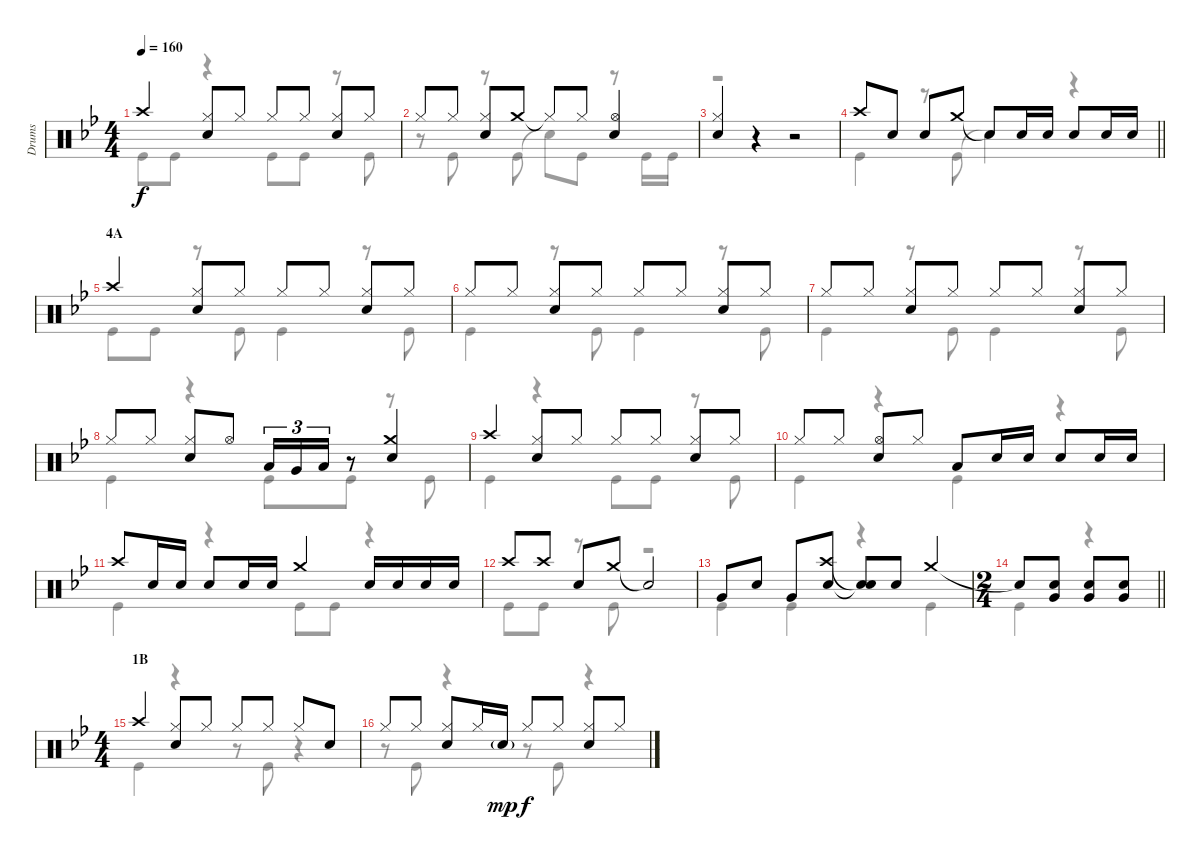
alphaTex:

\track ("Drums" "Drums") {instrument percussion}
\staff {score}
\articulation defaults
\voice
\ts (4 4)
\tempo 160
\clef neutral
\ks bb "Crash high (hit)".4{dy f}
("Hi-Hat (closed)" "Snare (hit) 2").8 "Hi-Hat (closed)".8 "Hi-Hat (closed)".8 "Hi-Hat (closed)".8 ("Hi-Hat (closed)" "Snare (hit) 2").8 "Hi-Hat (closed)".8 |
"Hi-Hat (closed)".8 "Hi-Hat (closed)".8 ("Hi-Hat (closed)" "Snare (hit) 2").8 "Crash medium (hit)".8 "Hi-Hat (closed)"{t}.8 "Hi-Hat (closed)".8 ("Hi-Hat (open)" "Snare (hit) 2").4 |
("Hi-Hat (closed)" "Snare (hit) 2").4 r.4 r.2 |
\barLineRight lightlight "Crash high (hit)".8 "Snare (hit) 2".8 "Snare (hit) 2".8 "Crash medium (hit)".8 "Snare (hit)"{t}.8 "Snare (hit) 2".16 "Snare (hit) 2".16 "Snare (hit) 2".8 "Snare (hit) 2".16 "Snare (hit) 2".16
|
\section ("" "4A")
"Crash high (hit)".4 ("Hi-Hat (closed)" "Snare (hit) 2").8 "Hi-Hat (closed)".8 "Hi-Hat (closed)".8 "Hi-Hat (closed)".8 ("Hi-Hat (closed)" "Snare (hit) 2").8 "Hi-Hat (closed)".8 |
"Hi-Hat (closed)".8 "Hi-Hat (closed)".8 ("Hi-Hat (closed)" "Snare (hit) 2").8 "Hi-Hat (closed)".8 "Hi-Hat (closed)".8 "Hi-Hat (closed)".8 ("Hi-Hat (closed)" "Snare (hit) 2").8 "Hi-Hat (closed)".8 |
"Hi-Hat (closed)".8 "Hi-Hat (closed)".8 ("Hi-Hat (closed)" "Snare (hit) 2").8 "Hi-Hat (closed)".8 "Hi-Hat (closed)".8 "Hi-Hat (closed)".8 ("Hi-Hat (closed)" "Snare (hit) 2").8 "Hi-Hat (closed)".8 |
"Hi-Hat (closed)".8 "Hi-Hat (closed)".8 ("Hi-Hat (closed)" "Snare (hit) 2").8 "Hi-Hat (open)".8 "Low Tom (hit)".16{tu (3 2)} "Very Low Tom (hit)".16{tu (3 2)} "Low Tom (hit)".16{tu (3 2)} r.8 ("Crash medium (hit)" "Snare (hit) 2").4 |
"Crash high (hit)".4 ("Hi-Hat (closed)" "Snare (hit) 2").8 "Hi-Hat (closed)".8 "Hi-Hat (closed)".8 "Hi-Hat (closed)".8 ("Hi-Hat (closed)" "Snare (hit) 2").8 "Hi-Hat (closed)".8 |
"Hi-Hat (closed)".8 "Hi-Hat (closed)".8 ("Hi-Hat (open)" "Snare (hit) 2").8 "Hi-Hat (closed)".8 "Low Tom (hit)".8 "Snare (hit) 2".16 "Snare (hit) 2".16 "Snare (hit) 2".8 "Snare (hit) 2".16 "Snare (hit) 2".16 |
"Crash high (hit)".8 "Snare (hit) 2".16 "Snare (hit) 2".16 "Snare (hit) 2".8 "Snare (hit) 2".16 "Snare (hit) 2".16 "Crash medium (hit)".4 "Snare (hit) 2".16 "Snare (hit) 2".16 "Snare (hit) 2".16 "Snare (hit) 2".16 |
"Crash high (hit)".8 "Crash high (hit)".8 "Snare (hit) 2".8 "Crash medium (hit)".8 "Snare (hit)"{t}.2 |
"Very Low Tom (hit)".8 "Snare (hit) 2".8 "Very Low Tom (hit)".8 ("Crash high (hit)" "Snare (hit) 2").8 ("Snare (hit)"{t} "Snare (hit)"{t}).8 "Snare (hit) 2".8 "Crash medium (hit)".4 |
\ts (2 4)
\barLineRight lightlight "Snare (hit)"{t}.8
("Snare (hit) 2" "Very Low Tom (hit)").8 ("Snare (hit) 2" "Very Low Tom (hit)").8 ("Snare (hit) 2" "Very Low Tom (hit)").8 |
\ts (4 4)
\section ("" "1B")
"Crash high (hit)".4 ("Hi-Hat (closed)" "Snare (hit) 2").8 "Hi-Hat (closed)".8 "Hi-Hat (closed)".8 "Hi-Hat (closed)".8 "Hi-Hat (closed)".8 "Snare (hit) 2".8 |
"Hi-Hat (closed)".8 "Hi-Hat (closed)".8 ("Hi-Hat (closed)" "Snare (hit) 2").8 "Hi-Hat (closed)".16 "Snare (hit) 2"{g}.16{dy mp} "Hi-Hat (closed)".8{dy f} "Hi-Hat (closed)".8 ("Hi-Hat (closed)" "Snare (hit) 2").8 "Hi-Hat (closed)".8
\voice
\clef neutral
\ottava regular
\simile none
\ks bb "Kick (hit)".8{dy f} "Kick (hit)".8
r.4 "Kick (hit)".8 "Kick (hit)".8 r.8 "Kick (hit)".8 |
r.8 "Kick (hit)".8 r.8 "Kick (hit)".8 "Snare (hit)"{t}.8 "Kick (hit)".8 r.8 "Kick (hit)".16 "Kick (hit)".16 |
r.1 |
\barLineRight lightlight "Kick (hit)".4
r.8 "Kick (hit)".8 "Snare (hit)"{t}.4 r.4 |
"Kick (hit)".8 "Kick (hit)".8 r.8 "Kick (hit)".8 "Kick (hit)".4 r.8 "Kick (hit)".8 |
"Kick (hit)".4 r.8 "Kick (hit)".8 "Kick (hit)".4 r.8 "Kick (hit)".8 |
"Kick (hit)".4 r.8 "Kick (hit)".8 "Kick (hit)".4 r.8 "Kick (hit)".8 |
"Kick (hit)".4 r.4 "Kick (hit)".8 "Kick (hit)".8 r.8 "Kick (hit)".8 |
"Kick (hit)".4 r.4 "Kick (hit)".8 "Kick (hit)".8 r.8 "Kick (hit)".8 |
"Kick (hit)".4 r.4 "Kick (hit)".4 r.4 |
"Kick (hit)".4 r.4 "Kick (hit)".8 "Kick (hit)".8 r.4 |
"Kick (hit)".8 "Kick (hit)".8 r.8 "Kick (hit)".8 r.2 |
"Kick (hit)".4 "Kick (hit)".4 r.4 "Kick (hit)".4 |
\barLineRight lightlight "Kick (hit)".4
r.4 |
"Kick (hit)".4 r.4 r.8 "Kick (hit)".8 r.4 |
r.8 "Kick (hit)".8 r.4 r.8 "Kick (hit)".8 r.4
